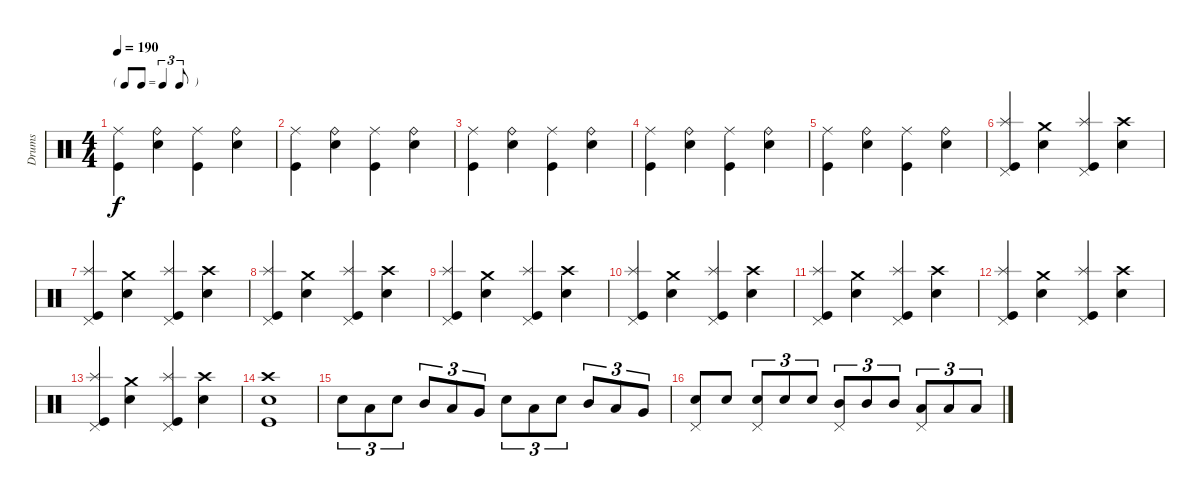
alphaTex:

\track ("Drums" "Drums") {instrument percussion}
\staff {score}
\articulation defaults
\ts (4 4)
\tf triplet8th
\tempo 190
\clef neutral
\ks c
("Ride (middle)" "Kick (hit)").4{dy f} ("Ride (bell)" "Electric Snare (hit)").4 ("Ride (middle)" "Kick (hit)").4 ("Ride (bell)" "Electric Snare (hit)").4 |
("Ride (middle)" "Kick (hit)").4 ("Ride (bell)" "Electric Snare (hit)").4 ("Ride (middle)" "Kick (hit)").4 ("Ride (bell)" "Electric Snare (hit)").4 |
("Ride (middle)" "Kick (hit)").4 ("Ride (bell)" "Electric Snare (hit)").4 ("Ride (middle)" "Kick (hit)").4 ("Ride (bell)" "Electric Snare (hit)").4 |
("Ride (middle)" "Kick (hit)").4 ("Ride (bell)" "Electric Snare (hit)").4 ("Ride (middle)" "Kick (hit)").4 ("Ride (bell)" "Electric Snare (hit)").4 |
("Ride (middle)" "Kick (hit)").4 ("Ride (bell)" "Electric Snare (hit)").4 ("Ride (middle)" "Kick (hit)").4 ("Ride (bell)" "Electric Snare (hit)").4 |
("Splash (hit)" "Pedal Hi-Hat (hit)" "Kick (hit)").4 ("Crash medium (hit)" "Electric Snare (hit)").4 ("Splash (hit)" "Pedal Hi-Hat (hit)" "Kick (hit)").4 ("Crash high (hit)" "Electric Snare (hit)").4 |
("Splash (hit)" "Pedal Hi-Hat (hit)" "Kick (hit)").4 ("Crash medium (hit)" "Electric Snare (hit)").4 ("Splash (hit)" "Pedal Hi-Hat (hit)" "Kick (hit)").4 ("Crash high (hit)" "Electric Snare (hit)").4 |
("Splash (hit)" "Pedal Hi-Hat (hit)" "Kick (hit)").4 ("Crash medium (hit)" "Electric Snare (hit)").4 ("Splash (hit)" "Pedal Hi-Hat (hit)" "Kick (hit)").4 ("Crash high (hit)" "Electric Snare (hit)").4 |
("Splash (hit)" "Pedal Hi-Hat (hit)" "Kick (hit)").4 ("Crash medium (hit)" "Electric Snare (hit)").4 ("Splash (hit)" "Pedal Hi-Hat (hit)" "Kick (hit)").4 ("Crash high (hit)" "Electric Snare (hit)").4 |
("Splash (hit)" "Pedal Hi-Hat (hit)" "Kick (hit)").4 ("Crash medium (hit)" "Electric Snare (hit)").4 ("Splash (hit)" "Pedal Hi-Hat (hit)" "Kick (hit)").4 ("Crash high (hit)" "Electric Snare (hit)").4 |
("Splash (hit)" "Pedal Hi-Hat (hit)" "Kick (hit)").4 ("Crash medium (hit)" "Electric Snare (hit)").4 ("Splash (hit)" "Pedal Hi-Hat (hit)" "Kick (hit)").4 ("Crash high (hit)" "Electric Snare (hit)").4 |
("Splash (hit)" "Pedal Hi-Hat (hit)" "Kick (hit)").4 ("Crash medium (hit)" "Electric Snare (hit)").4 ("Splash (hit)" "Pedal Hi-Hat (hit)" "Kick (hit)").4 ("Crash high (hit)" "Electric Snare (hit)").4 |
("Splash (hit)" "Pedal Hi-Hat (hit)" "Kick (hit)").4 ("Crash medium (hit)" "Electric Snare (hit)").4 ("Splash (hit)" "Pedal Hi-Hat (hit)" "Kick (hit)").4 ("Crash high (hit)" "Electric Snare (hit)").4 |
("Crash high (hit)" "Electric Snare (hit)" "Kick (hit)").1 |
"Electric Snare (hit)".8{tu (3 2)} "Low Tom (hit)".8{tu (3 2)} "Electric Snare (hit)".8{tu (3 2)} "Mid Tom (hit)".8{tu (3 2)} "Low Tom (hit)".8{tu (3 2)} "Very Low Tom (hit)".8{tu (3 2)} "Electric Snare (hit)".8{tu (3 2)} "Low Tom (hit)".8{tu (3 2)} "Electric Snare (hit)".8{tu (3 2)} "Mid Tom (hit)".8{tu (3 2)} "Low Tom (hit)".8{tu (3 2)} "Very Low Tom (hit)".8{tu (3 2)} |
("Pedal Hi-Hat (hit)" "Electric Snare (hit)").8 "Electric Snare (hit)".8 ("Pedal Hi-Hat (hit)" "Electric Snare (hit)").8{tu (3 2)} "Electric Snare (hit)".8{tu (3 2)} "Electric Snare (hit)".8{tu (3 2)} ("Pedal Hi-Hat (hit)" "Mid Tom (hit)").8{tu (3 2)} "Mid Tom (hit)".8{tu (3 2)} "Mid Tom (hit)".8{tu (3 2)} ("Pedal Hi-Hat (hit)" "Low Tom (hit)").8{tu (3 2)} "Low Tom (hit)".8{tu (3 2)} "Low Tom (hit)".8{tu (3 2)}
